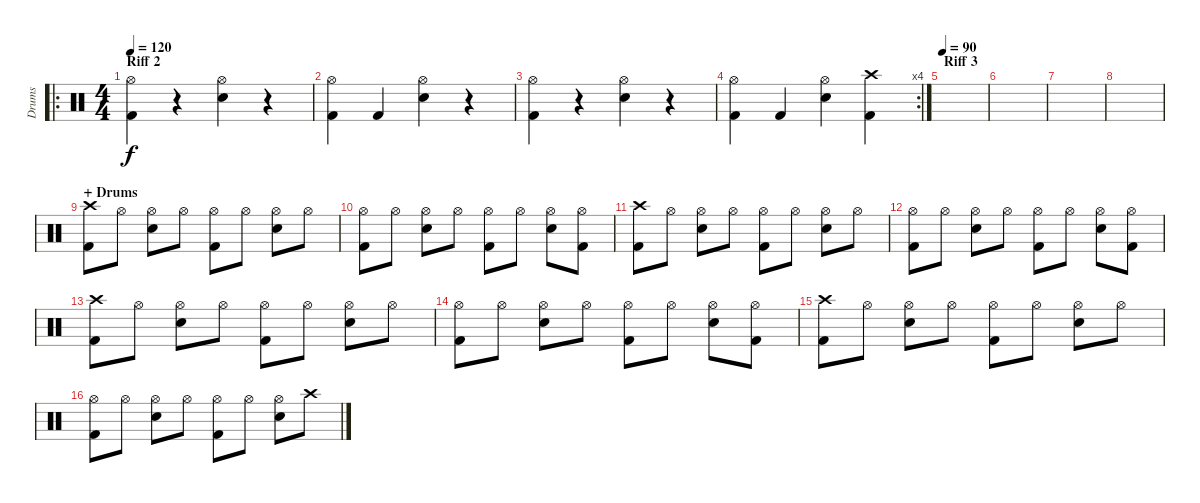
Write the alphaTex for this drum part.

\track ("Drums" "Drums") {instrument percussion}
\staff {score}
\articulation defaults
\ro
\ts (4 4)
\section ("" "Riff 2")
\tempo 120
\clef neutral
\ks c
("Hi-Hat (open)" "Kick (hit) 2").4{dy f} r.4 ("Hi-Hat (open)" "Snare (hit) 2").4 r.4 |
("Hi-Hat (open)" "Kick (hit) 2").4 "Kick (hit) 2".4 ("Hi-Hat (open)" "Snare (hit) 2").4 r.4 |
("Hi-Hat (open)" "Kick (hit) 2").4 r.4 ("Hi-Hat (open)" "Snare (hit) 2").4 r.4 |
\rc 4
("Hi-Hat (open)" "Kick (hit) 2").4 "Kick (hit) 2".4 ("Hi-Hat (open)" "Snare (hit) 2").4 ("Crash high (hit)" "Kick (hit) 2").4 |
\section ("" "Riff 3")
\tempo 90
|
|
|
|
\section ("" "+ Drums")
("Crash high (hit)" "Kick (hit) 2").8 "Hi-Hat (open)".8 ("Hi-Hat (open)" "Snare (hit) 2").8 "Hi-Hat (open)".8 ("Hi-Hat (open)" "Kick (hit) 2").8 "Hi-Hat (open)".8 ("Hi-Hat (open)" "Snare (hit) 2").8 "Hi-Hat (open)".8 |
("Hi-Hat (open)" "Kick (hit) 2").8 "Hi-Hat (open)".8 ("Hi-Hat (open)" "Snare (hit) 2").8 "Hi-Hat (open)".8 ("Hi-Hat (open)" "Kick (hit) 2").8 "Hi-Hat (open)".8 ("Hi-Hat (open)" "Snare (hit) 2").8 ("Hi-Hat (open)" "Kick (hit) 2").8 |
("Crash high (hit)" "Kick (hit) 2").8 "Hi-Hat (open)".8 ("Hi-Hat (open)" "Snare (hit) 2").8 "Hi-Hat (open)".8 ("Hi-Hat (open)" "Kick (hit) 2").8 "Hi-Hat (open)".8 ("Hi-Hat (open)" "Snare (hit) 2").8 "Hi-Hat (open)".8 |
("Hi-Hat (open)" "Kick (hit) 2").8 "Hi-Hat (open)".8 ("Hi-Hat (open)" "Snare (hit) 2").8 "Hi-Hat (open)".8 ("Hi-Hat (open)" "Kick (hit) 2").8 "Hi-Hat (open)".8 ("Hi-Hat (open)" "Snare (hit) 2").8 ("Hi-Hat (open)" "Kick (hit) 2").8 |
("Crash high (hit)" "Kick (hit) 2").8 "Hi-Hat (open)".8 ("Hi-Hat (open)" "Snare (hit) 2").8 "Hi-Hat (open)".8 ("Hi-Hat (open)" "Kick (hit) 2").8 "Hi-Hat (open)".8 ("Hi-Hat (open)" "Snare (hit) 2").8 "Hi-Hat (open)".8 |
("Hi-Hat (open)" "Kick (hit) 2").8 "Hi-Hat (open)".8 ("Hi-Hat (open)" "Snare (hit) 2").8 "Hi-Hat (open)".8 ("Hi-Hat (open)" "Kick (hit) 2").8 "Hi-Hat (open)".8 ("Hi-Hat (open)" "Snare (hit) 2").8 ("Hi-Hat (open)" "Kick (hit) 2").8 |
("Crash high (hit)" "Kick (hit) 2").8 "Hi-Hat (open)".8 ("Hi-Hat (open)" "Snare (hit) 2").8 "Hi-Hat (open)".8 ("Hi-Hat (open)" "Kick (hit) 2").8 "Hi-Hat (open)".8 ("Hi-Hat (open)" "Snare (hit) 2").8 "Hi-Hat (open)".8 |
("Hi-Hat (open)" "Kick (hit) 2").8 "Hi-Hat (open)".8 ("Hi-Hat (open)" "Snare (hit) 2").8 "Hi-Hat (open)".8 ("Hi-Hat (open)" "Kick (hit) 2").8 "Hi-Hat (open)".8 ("Hi-Hat (open)" "Snare (hit) 2").8 "Crash high (hit)".8
